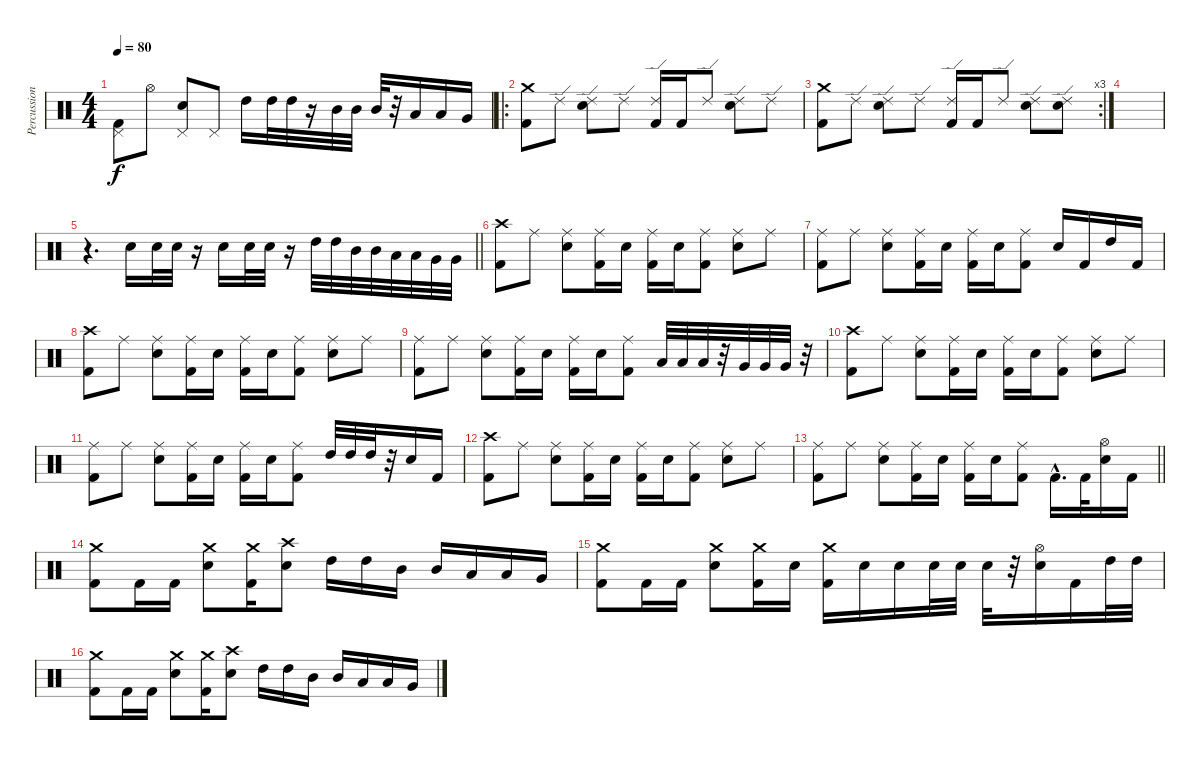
\track ("Percussion" "Percussion") {instrument percussion}
\staff {score}
\articulation defaults
\ts (4 4)
\tempo 80
\clef neutral
\ks c
("Pedal Hi-Hat (hit)" "Kick (hit) 2").8{dy f} "Hi-Hat (open)".8 ("Pedal Hi-Hat (hit)" "Electric Snare (hit)").8 "Pedal Hi-Hat (hit)".8 "High Tom (hit)".16 "High Tom (hit)".32 "High Tom (hit)".32 r.16 "Mid Tom (hit)".32 "Mid Tom (hit)".32 "Mid Tom (hit)".32 r.32 "Low Tom (hit)".16 "Low Tom (hit)".16 "Very Low Tom (hit)".16 |
\ro
("Crash medium (hit)" "Kick (hit) 2").8 "Ride (edge) 2".8 ("Ride (edge) 2" "Electric Snare (hit)").8 "Ride (edge) 2".8 ("Ride (edge) 2" "Kick (hit) 2").16 "Kick (hit) 2".16 "Ride (edge) 2".8 ("Ride (edge) 2" "Electric Snare (hit)").8 "Ride (edge) 2".8 |
\rc 3
("Crash medium (hit)" "Kick (hit) 2").8 "Ride (edge) 2".8 ("Ride (edge) 2" "Electric Snare (hit)").8 "Ride (edge) 2".8 ("Ride (edge) 2" "Kick (hit) 2").16 "Kick (hit) 2".16 "Ride (edge) 2".8 ("Ride (edge) 2" "Electric Snare (hit)").8 ("Ride (edge) 2" "Electric Snare (hit)").8 |
|
\barLineRight lightlight
r.4{d} "Electric Snare (hit)".16 "Electric Snare (hit)".32 "Electric Snare (hit)".32 r.16 "Electric Snare (hit)".16 "Electric Snare (hit)".32 "Electric Snare (hit)".32 r.16 "High Tom (hit)".32 "High Tom (hit)".32 "Mid Tom (hit)".32 "Mid Tom (hit)".32 "Low Tom (hit)".32 "Low Tom (hit)".32 "Very Low Tom (hit)".32 "Very Low Tom (hit)".32 |
("Crash high (hit)" "Kick (hit) 2").8 "Ride (middle)".8 ("Ride (middle)" "Electric Snare (hit)").8 ("Ride (middle)" "Kick (hit) 2").16 "Electric Snare (hit)".16 ("Ride (middle)" "Kick (hit) 2").16 "Electric Snare (hit)".16 ("Ride (middle)" "Kick (hit) 2").8 ("Ride (middle)" "Electric Snare (hit)").8 "Ride (middle)".8 |
("Ride (middle)" "Kick (hit) 2").8 "Ride (middle)".8 ("Ride (middle)" "Electric Snare (hit)").8 ("Ride (middle)" "Kick (hit) 2").16 "Electric Snare (hit)".16 ("Ride (middle)" "Kick (hit) 2").16 "Electric Snare (hit)".16 ("Ride (middle)" "Kick (hit) 2").8 "Electric Snare (hit)".16 "Kick (hit) 2".16 "High Tom (hit)".16 "Kick (hit) 2".16 |
("Crash high (hit)" "Kick (hit) 2").8 "Ride (middle)".8 ("Ride (middle)" "Electric Snare (hit)").8 ("Ride (middle)" "Kick (hit) 2").16 "Electric Snare (hit)".16 ("Ride (middle)" "Kick (hit) 2").16 "Electric Snare (hit)".16 ("Ride (middle)" "Kick (hit) 2").8 ("Ride (middle)" "Electric Snare (hit)").8 "Ride (middle)".8 |
("Ride (middle)" "Kick (hit) 2").8 "Ride (middle)".8 ("Ride (middle)" "Electric Snare (hit)").8 ("Ride (middle)" "Kick (hit) 2").16 "Electric Snare (hit)".16 ("Ride (middle)" "Kick (hit) 2").16 "Electric Snare (hit)".16 ("Ride (middle)" "Kick (hit) 2").8 "Low Tom (hit)".32 "Low Tom (hit)".32 "Low Tom (hit)".32 r.32 "Very Low Tom (hit)".32 "Very Low Tom (hit)".32 "Very Low Tom (hit)".32 r.32 |
("Crash high (hit)" "Kick (hit) 2").8 "Ride (middle)".8 ("Ride (middle)" "Electric Snare (hit)").8 ("Ride (middle)" "Kick (hit) 2").16 "Electric Snare (hit)".16 ("Ride (middle)" "Kick (hit) 2").16 "Electric Snare (hit)".16 ("Ride (middle)" "Kick (hit) 2").8 ("Ride (middle)" "Electric Snare (hit)").8 "Ride (middle)".8 |
("Ride (middle)" "Kick (hit) 2").8 "Ride (middle)".8 ("Ride (middle)" "Electric Snare (hit)").8 ("Ride (middle)" "Kick (hit) 2").16 "Electric Snare (hit)".16 ("Ride (middle)" "Kick (hit) 2").16 "Electric Snare (hit)".16 ("Ride (middle)" "Kick (hit) 2").8 "High Tom (hit)".32 "High Tom (hit)".32 "High Tom (hit)".32 r.32 "Electric Snare (hit)".16 "Kick (hit) 2".16 |
("Crash high (hit)" "Kick (hit) 2").8 "Ride (middle)".8 ("Ride (middle)" "Electric Snare (hit)").8 ("Ride (middle)" "Kick (hit) 2").16 "Electric Snare (hit)".16 ("Ride (middle)" "Kick (hit) 2").16 "Electric Snare (hit)".16 ("Ride (middle)" "Kick (hit) 2").8 ("Ride (middle)" "Electric Snare (hit)").8 "Ride (middle)".8 |
\barLineRight lightlight
("Ride (middle)" "Kick (hit) 2").8 "Ride (middle)".8 ("Ride (middle)" "Electric Snare (hit)").8 ("Ride (middle)" "Kick (hit) 2").16 "Electric Snare (hit)".16 ("Ride (middle)" "Kick (hit) 2").16 "Electric Snare (hit)".16 ("Ride (middle)" "Kick (hit) 2").8 "Kick (hit) 2"{hac}.16{d} "Kick (hit) 2".32 ("Hi-Hat (open)" "Electric Snare (hit)").16 "Kick (hit) 2".16 |
("Crash medium (hit)" "Kick (hit) 2").8{volume 9} "Kick (hit) 2".16 "Kick (hit) 2".16 ("Crash medium (hit)" "Electric Snare (hit)").8 ("Crash medium (hit)" "Kick (hit) 2").16 ("Crash high (hit)" "Electric Snare (hit)").8 "High Tom (hit)".16 "High Tom (hit)".16 "Mid Tom (hit)".16 "Mid Tom (hit)".16 "Low Tom (hit)".16 "Low Tom (hit)".16 "Very Low Tom (hit)".16 |
("Crash medium (hit)" "Kick (hit) 2").8 "Kick (hit) 2".16 "Kick (hit) 2".16 ("Crash medium (hit)" "Electric Snare (hit)").8 ("Crash medium (hit)" "Kick (hit) 2").16 "Electric Snare (hit)".16 ("Crash medium (hit)" "Kick (hit) 2").16 "Electric Snare (hit)".16 "Electric Snare (hit)".16 "Electric Snare (hit)".32 "Electric Snare (hit)".32 "Electric Snare (hit)".32 r.32 ("Hi-Hat (open)" "Electric Snare (hit)").16 "Kick (hit) 2".16 "High Tom (hit)".32 "High Tom (hit)".32 |
("Crash medium (hit)" "Kick (hit) 2").8 "Kick (hit) 2".16 "Kick (hit) 2".16 ("Crash medium (hit)" "Electric Snare (hit)").8 ("Crash medium (hit)" "Kick (hit) 2").16 ("Crash high (hit)" "Electric Snare (hit)").8 "High Tom (hit)".16 "High Tom (hit)".16 "Mid Tom (hit)".16 "Mid Tom (hit)".16 "Low Tom (hit)".16 "Low Tom (hit)".16 "Very Low Tom (hit)".16
